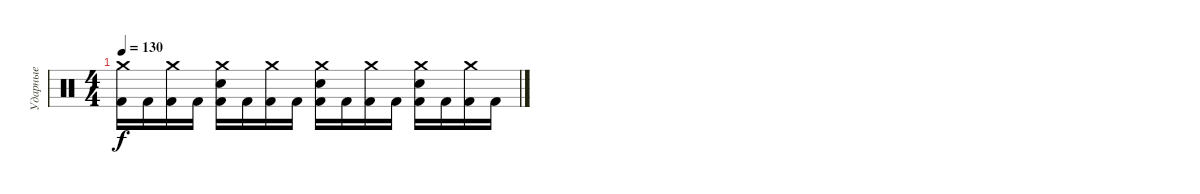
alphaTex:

\track ("Ударные" "Ударные") {instrument percussion}
\staff {score}
\articulation defaults
\ts (4 4)
\tempo 130
\clef neutral
\ks c
("Crash medium (hit)" "Kick (hit) 2").16{dy f} "Kick (hit) 2".16 ("Crash medium (hit)" "Kick (hit) 2").16 "Kick (hit) 2".16 ("Crash medium (hit)" "Electric Snare (hit)" "Kick (hit) 2").16 "Kick (hit) 2".16 ("Crash medium (hit)" "Kick (hit) 2").16 "Kick (hit) 2".16 ("Crash medium (hit)" "Electric Snare (hit)" "Kick (hit) 2").16 "Kick (hit) 2".16 ("Crash medium (hit)" "Kick (hit) 2").16 "Kick (hit) 2".16 ("Crash medium (hit)" "Electric Snare (hit)" "Kick (hit) 2").16 "Kick (hit) 2".16 ("Crash medium (hit)" "Kick (hit) 2").16 "Kick (hit) 2".16
